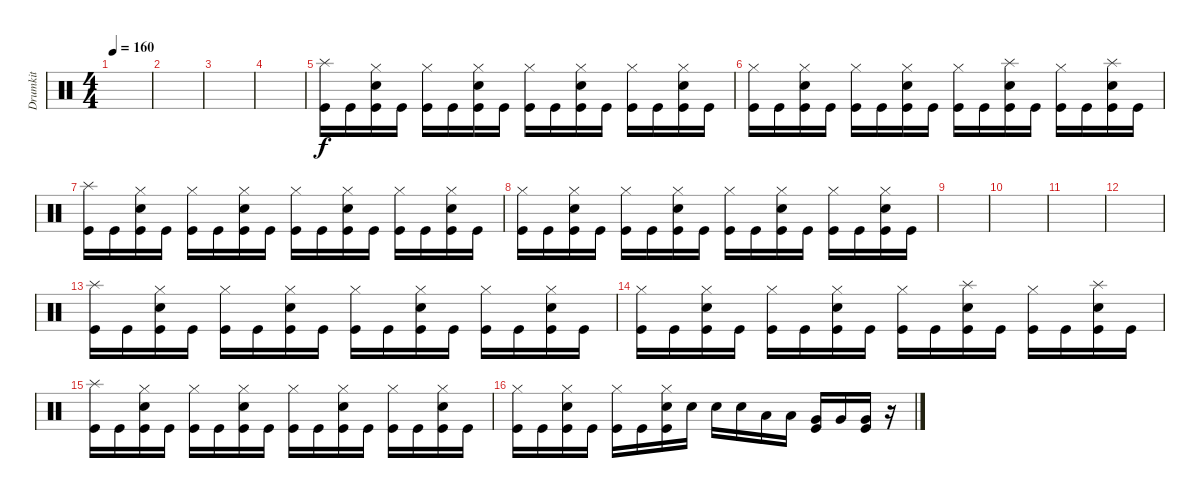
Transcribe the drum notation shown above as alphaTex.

\track ("Drumkit" "Drumkit") {instrument percussion}
\staff {score}
\articulation defaults
\ts (4 4)
\tempo 160
\clef neutral
\ks c
|
|
|
|
("Splash (hit)" "Kick (hit)").16 "Kick (hit)".16 ("Snare (hit) 2" "Hi-Hat (closed)" "Kick (hit)").16 "Kick (hit)".16 ("Hi-Hat (closed)" "Kick (hit)").16 "Kick (hit)".16 ("Hi-Hat (closed)" "Snare (hit) 2" "Kick (hit)").16 "Kick (hit)".16 ("Hi-Hat (closed)" "Kick (hit)").16 "Kick (hit)".16 ("Hi-Hat (closed)" "Snare (hit) 2" "Kick (hit)").16 "Kick (hit)".16 ("Hi-Hat (closed)" "Kick (hit)").16 "Kick (hit)".16 ("Hi-Hat (closed)" "Snare (hit) 2" "Kick (hit)").16 "Kick (hit)".16 |
("Kick (hit)" "Hi-Hat (closed)").16 "Kick (hit)".16 ("Snare (hit) 2" "Hi-Hat (closed)" "Kick (hit)").16 "Kick (hit)".16 ("Hi-Hat (closed)" "Kick (hit)").16 "Kick (hit)".16 ("Hi-Hat (closed)" "Snare (hit) 2" "Kick (hit)").16 "Kick (hit)".16 ("Hi-Hat (closed)" "Kick (hit)").16 "Kick (hit)".16 ("Snare (hit) 2" "Splash (hit)" "Kick (hit)").16 "Kick (hit)".16 ("Hi-Hat (closed)" "Kick (hit)").16 "Kick (hit)".16 ("Snare (hit) 2" "Splash (hit)" "Kick (hit)").16 "Kick (hit)".16 |
("Splash (hit)" "Kick (hit)").16 "Kick (hit)".16 ("Snare (hit) 2" "Hi-Hat (closed)" "Kick (hit)").16 "Kick (hit)".16 ("Hi-Hat (closed)" "Kick (hit)").16 "Kick (hit)".16 ("Hi-Hat (closed)" "Snare (hit) 2" "Kick (hit)").16 "Kick (hit)".16 ("Hi-Hat (closed)" "Kick (hit)").16 "Kick (hit)".16 ("Hi-Hat (closed)" "Snare (hit) 2" "Kick (hit)").16 "Kick (hit)".16 ("Hi-Hat (closed)" "Kick (hit)").16 "Kick (hit)".16 ("Hi-Hat (closed)" "Snare (hit) 2" "Kick (hit)").16 "Kick (hit)".16 |
("Kick (hit)" "Hi-Hat (closed)").16 "Kick (hit)".16 ("Snare (hit) 2" "Hi-Hat (closed)" "Kick (hit)").16 "Kick (hit)".16 ("Hi-Hat (closed)" "Kick (hit)").16 "Kick (hit)".16 ("Hi-Hat (closed)" "Snare (hit) 2" "Kick (hit)").16 "Kick (hit)".16 ("Hi-Hat (closed)" "Kick (hit)").16 "Kick (hit)".16 ("Snare (hit) 2" "Hi-Hat (closed)" "Kick (hit)").16 "Kick (hit)".16 ("Hi-Hat (closed)" "Kick (hit)").16 "Kick (hit)".16 ("Snare (hit) 2" "Hi-Hat (closed)" "Kick (hit)").16 "Kick (hit)".16 |
|
|
|
|
("Splash (hit)" "Kick (hit)").16 "Kick (hit)".16 ("Snare (hit) 2" "Hi-Hat (closed)" "Kick (hit)").16 "Kick (hit)".16 ("Hi-Hat (closed)" "Kick (hit)").16 "Kick (hit)".16 ("Hi-Hat (closed)" "Snare (hit) 2" "Kick (hit)").16 "Kick (hit)".16 ("Hi-Hat (closed)" "Kick (hit)").16 "Kick (hit)".16 ("Hi-Hat (closed)" "Snare (hit) 2" "Kick (hit)").16 "Kick (hit)".16 ("Hi-Hat (closed)" "Kick (hit)").16 "Kick (hit)".16 ("Hi-Hat (closed)" "Snare (hit) 2" "Kick (hit)").16 "Kick (hit)".16 |
("Kick (hit)" "Hi-Hat (closed)").16 "Kick (hit)".16 ("Snare (hit) 2" "Hi-Hat (closed)" "Kick (hit)").16 "Kick (hit)".16 ("Hi-Hat (closed)" "Kick (hit)").16 "Kick (hit)".16 ("Hi-Hat (closed)" "Snare (hit) 2" "Kick (hit)").16 "Kick (hit)".16 ("Hi-Hat (closed)" "Kick (hit)").16 "Kick (hit)".16 ("Snare (hit) 2" "Splash (hit)" "Kick (hit)").16 "Kick (hit)".16 ("Hi-Hat (closed)" "Kick (hit)").16 "Kick (hit)".16 ("Snare (hit) 2" "Splash (hit)" "Kick (hit)").16 "Kick (hit)".16 |
("Splash (hit)" "Kick (hit)").16 "Kick (hit)".16 ("Snare (hit) 2" "Hi-Hat (closed)" "Kick (hit)").16 "Kick (hit)".16 ("Hi-Hat (closed)" "Kick (hit)").16 "Kick (hit)".16 ("Hi-Hat (closed)" "Snare (hit) 2" "Kick (hit)").16 "Kick (hit)".16 ("Hi-Hat (closed)" "Kick (hit)").16 "Kick (hit)".16 ("Hi-Hat (closed)" "Snare (hit) 2" "Kick (hit)").16 "Kick (hit)".16 ("Hi-Hat (closed)" "Kick (hit)").16 "Kick (hit)".16 ("Hi-Hat (closed)" "Snare (hit) 2" "Kick (hit)").16 "Kick (hit)".16 |
("Kick (hit)" "Hi-Hat (closed)").16 "Kick (hit)".16 ("Snare (hit) 2" "Hi-Hat (closed)" "Kick (hit)").16 "Kick (hit)".16 ("Hi-Hat (closed)" "Kick (hit)").16 "Kick (hit)".16 ("Hi-Hat (closed)" "Snare (hit) 2" "Kick (hit)").16 "Snare (hit) 2".16 "Snare (hit) 2".16 "Snare (hit) 2".16 "Low Tom (hit)".16 "Low Tom (hit)".16 ("Kick (hit)" "Very Low Tom (hit)").16 "Very Low Tom (hit)".16 ("Kick (hit)" "Very Low Tom (hit)").16 r.16
